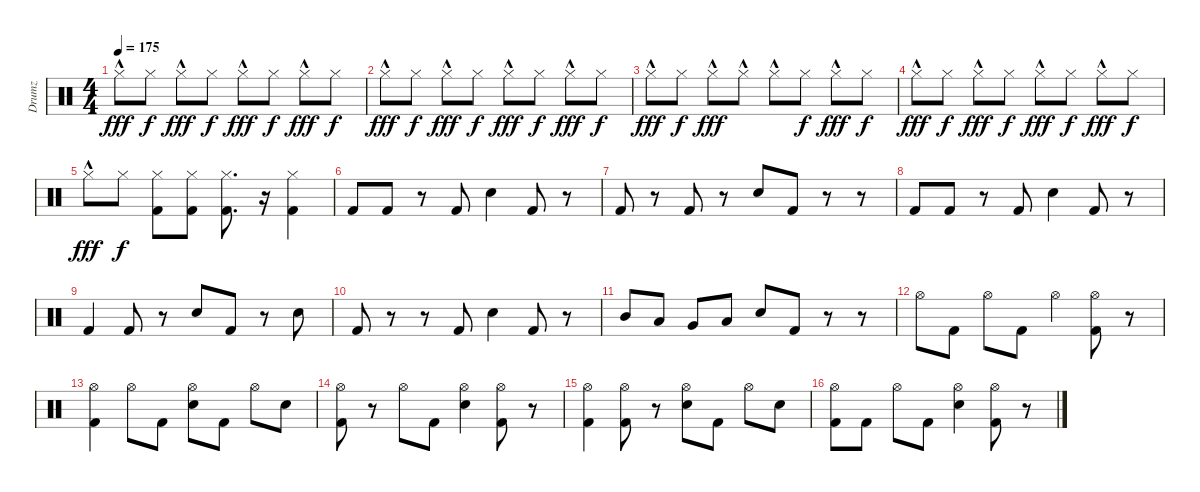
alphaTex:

\track ("Drumz" "Drumz") {instrument percussion}
\staff {score}
\articulation defaults
\ts (4 4)
\tempo 175
\clef neutral
\ks c "Hi-Hat (closed)"{hac}.8{dy fff} "Hi-Hat (closed)".8{dy f} "Hi-Hat (closed)"{hac}.8{dy fff} "Hi-Hat (closed)".8{dy f} "Hi-Hat (closed)"{hac}.8{dy fff} "Hi-Hat (closed)".8{dy f} "Hi-Hat (closed)"{hac}.8{dy fff} "Hi-Hat (closed)".8{dy f}
|
"Hi-Hat (closed)"{hac}.8{dy fff} "Hi-Hat (closed)".8{dy f} "Hi-Hat (closed)"{hac}.8{dy fff} "Hi-Hat (closed)".8{dy f} "Hi-Hat (closed)"{hac}.8{dy fff} "Hi-Hat (closed)".8{dy f} "Hi-Hat (closed)"{hac}.8{dy fff} "Hi-Hat (closed)".8{dy f} |
"Hi-Hat (closed)"{hac}.8{dy fff} "Hi-Hat (closed)".8{dy f} "Hi-Hat (closed)"{hac}.8{dy fff} "Hi-Hat (closed)"{hac}.8 "Hi-Hat (closed)"{hac}.8 "Hi-Hat (closed)".8{dy f} "Hi-Hat (closed)"{hac}.8{dy fff} "Hi-Hat (closed)".8{dy f} |
"Hi-Hat (closed)"{hac}.8{dy fff} "Hi-Hat (closed)".8{dy f} "Hi-Hat (closed)"{hac}.8{dy fff} "Hi-Hat (closed)".8{dy f} "Hi-Hat (closed)"{hac}.8{dy fff} "Hi-Hat (closed)".8{dy f} "Hi-Hat (closed)"{hac}.8{dy fff} "Hi-Hat (closed)".8{dy f} |
"Hi-Hat (closed)"{hac}.8{dy fff} "Hi-Hat (closed)".8{dy f} ("Kick (hit) 2" "Hi-Hat (closed)").8 ("Kick (hit) 2" "Hi-Hat (closed)").8 ("Kick (hit) 2" "Hi-Hat (closed)").8{d} r.16 ("Kick (hit) 2" "Hi-Hat (closed)").4 |
"Kick (hit) 2".8 "Kick (hit) 2".8 r.8 "Kick (hit) 2".8 "Snare (hit) 2".4 "Kick (hit) 2".8 r.8 |
"Kick (hit) 2".8 r.8 "Kick (hit) 2".8 r.8 "Snare (hit) 2".8 "Kick (hit) 2".8 r.8 r.8 |
"Kick (hit) 2".8 "Kick (hit) 2".8 r.8 "Kick (hit) 2".8 "Snare (hit) 2".4 "Kick (hit) 2".8 r.8 |
"Kick (hit) 2".4 "Kick (hit) 2".8 r.8 "Snare (hit) 2".8 "Kick (hit) 2".8 r.8 "Snare (hit) 2".8 |
"Kick (hit) 2".8 r.8 r.8 "Kick (hit) 2".8 "Snare (hit) 2".4 "Kick (hit) 2".8 r.8 |
"Mid Tom (hit)".8 "Low Tom (hit)".8 "Very Low Tom (hit)".8 "Low Floor Tom (hit)".8 "Snare (hit) 2".8 "Kick (hit) 2".8 r.8 r.8 |
"Hi-Hat (open)".8 "Kick (hit) 2".8 "Hi-Hat (open)".8 "Kick (hit) 2".8 "Hi-Hat (open)".4 ("Kick (hit) 2" "Hi-Hat (open)").8 r.8 |
("Kick (hit) 2" "Hi-Hat (open)").4 "Hi-Hat (open)".8 "Kick (hit) 2".8 ("Snare (hit) 2" "Hi-Hat (open)").8 "Kick (hit) 2".8 "Hi-Hat (open)".8 "Snare (hit) 2".8 |
("Kick (hit) 2" "Hi-Hat (open)").8 r.8 "Hi-Hat (open)".8 "Kick (hit) 2".8 ("Snare (hit) 2" "Hi-Hat (open)").4 ("Kick (hit) 2" "Hi-Hat (open)").8 r.8 |
("Kick (hit) 2" "Hi-Hat (open)").4 ("Kick (hit) 2" "Hi-Hat (open)").8 r.8 ("Snare (hit) 2" "Hi-Hat (open)").8 "Kick (hit) 2".8 "Hi-Hat (open)".8 "Snare (hit) 2".8 |
("Kick (hit) 2" "Hi-Hat (open)").8 "Kick (hit) 2".8 "Hi-Hat (open)".8 "Kick (hit) 2".8 ("Snare (hit) 2" "Hi-Hat (open)").4 ("Kick (hit) 2" "Hi-Hat (open)").8 r.8
